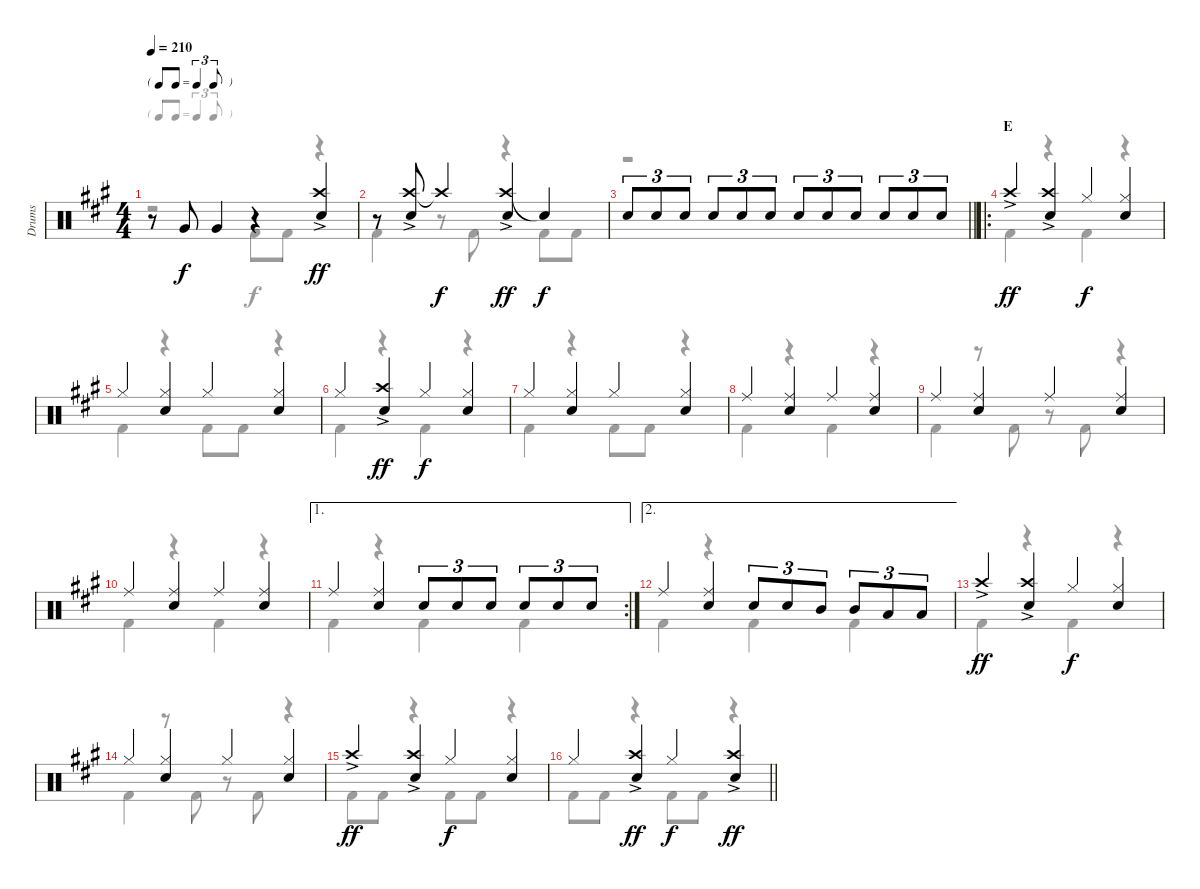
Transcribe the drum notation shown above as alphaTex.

\track ("Drums" "Drums") {instrument percussion}
\staff {score}
\articulation defaults
\voice
\ts (4 4)
\tf triplet8th
\tempo 210
\clef neutral
\ks a
r.8{dy f} "Very Low Tom (hit)".8 "Very Low Tom (hit)".4 r.4 ("Crash high (hit)"{ac} "Snare (hit) 2").4{dy ff} |
r.8 ("Crash high (hit)"{ac} "Snare (hit) 2").8 "Crash high (hit)"{t}.4{dy f} ("Crash high (hit)"{ac} "Snare (hit) 2").4{dy ff} "Snare (hit)"{t}.4{dy f} |
\barLineRight lightlight "Snare (hit) 2".8{tu (3 2)} "Snare (hit) 2".8{tu (3 2)} "Snare (hit) 2".8{tu (3 2)} "Snare (hit) 2".8{tu (3 2)} "Snare (hit) 2".8{tu (3 2)} "Snare (hit) 2".8{tu (3 2)} "Snare (hit) 2".8{tu (3 2)} "Snare (hit) 2".8{tu (3 2)} "Snare (hit) 2".8{tu (3 2)} "Snare (hit) 2".8{tu (3 2)} "Snare (hit) 2".8{tu (3 2)} "Snare (hit) 2".8{tu (3 2)}
|
\ro
\section ("" "E")
"Crash high (hit)"{ac}.4{dy ff} ("Crash high (hit)"{ac} "Snare (hit) 2").4 "Hi-Hat (closed)".4{dy f} ("Hi-Hat (closed)" "Snare (hit) 2").4 |
"Hi-Hat (closed)".4 ("Hi-Hat (closed)" "Snare (hit) 2").4 "Hi-Hat (closed)".4 ("Hi-Hat (closed)" "Snare (hit) 2").4 |
"Hi-Hat (closed)".4 ("Crash high (hit)"{ac} "Snare (hit) 2").4{dy ff} "Hi-Hat (closed)".4{dy f} ("Hi-Hat (closed)" "Snare (hit) 2").4 |
"Hi-Hat (closed)".4 ("Hi-Hat (closed)" "Snare (hit) 2").4 "Hi-Hat (closed)".4 ("Hi-Hat (closed)" "Snare (hit) 2").4 |
"Ride (middle)".4 ("Ride (middle)" "Snare (hit) 2").4 "Ride (middle)".4 ("Ride (middle)" "Snare (hit) 2").4 |
"Ride (middle)".4 ("Ride (middle)" "Snare (hit) 2").4 "Ride (middle)".4 ("Ride (middle)" "Snare (hit) 2").4 |
"Ride (middle)".4 ("Ride (middle)" "Snare (hit) 2").4 "Ride (middle)".4 ("Ride (middle)" "Snare (hit) 2").4 |
\ae 1
\rc 2 "Ride (middle)".4
("Ride (middle)" "Snare (hit) 2").4 "Snare (hit) 2".8{tu (3 2)} "Snare (hit) 2".8{tu (3 2)} "Snare (hit) 2".8{tu (3 2)} "Snare (hit) 2".8{tu (3 2)} "Snare (hit) 2".8{tu (3 2)} "Snare (hit) 2".8{tu (3 2)} |
\ae 2 "Ride (middle)".4
("Ride (middle)" "Snare (hit) 2").4 "Snare (hit) 2".8{tu (3 2)} "Snare (hit) 2".8{tu (3 2)} "Mid Tom (hit)".8{tu (3 2)} "Mid Tom (hit)".8{tu (3 2)} "Low Tom (hit)".8{tu (3 2)} "Low Tom (hit)".8{tu (3 2)} |
"Crash high (hit)"{ac}.4{dy ff} ("Crash high (hit)"{ac} "Snare (hit) 2").4 "Hi-Hat (closed)".4{dy f} ("Hi-Hat (closed)" "Snare (hit) 2").4 |
"Hi-Hat (closed)".4 ("Hi-Hat (closed)" "Snare (hit) 2").4 "Hi-Hat (closed)".4 ("Hi-Hat (closed)" "Snare (hit) 2").4 |
"Crash high (hit)"{ac}.4{dy ff} ("Crash high (hit)"{ac} "Snare (hit) 2").4 "Hi-Hat (closed)".4{dy f} ("Hi-Hat (closed)" "Snare (hit) 2").4 |
\barLineRight lightlight "Hi-Hat (closed)".4
("Crash high (hit)"{ac} "Snare (hit) 2").4{dy ff} "Hi-Hat (closed)".4{dy f} ("Crash high (hit)"{ac} "Snare (hit) 2").4{dy ff}
\voice
\clef neutral
\ottava regular
\simile none
\ks a
r.2{dy f} "Kick (hit) 2".8 "Kick (hit) 2".8 r.4 |
"Kick (hit) 2".4 r.8 "Kick (hit) 2".8 r.4 "Kick (hit) 2".8 "Kick (hit) 2".8 |
\barLineRight lightlight
r.1 |
"Kick (hit) 2".4 r.4 "Kick (hit) 2".4 r.4 |
"Kick (hit) 2".4 r.4 "Kick (hit) 2".8 "Kick (hit) 2".8 r.4 |
"Kick (hit) 2".4 r.4 "Kick (hit) 2".4 r.4 |
"Kick (hit) 2".4 r.4 "Kick (hit) 2".8 "Kick (hit) 2".8 r.4 |
"Kick (hit) 2".4 r.4 "Kick (hit) 2".4 r.4 |
"Kick (hit) 2".4 r.8 "Kick (hit) 2".8 r.8 "Kick (hit) 2".8 r.4 |
"Kick (hit) 2".4 r.4 "Kick (hit) 2".4 r.4 |
"Kick (hit) 2".4 r.4 "Kick (hit) 2".4 "Kick (hit) 2".4 |
"Kick (hit) 2".4 r.4 "Kick (hit) 2".4 "Kick (hit) 2".4 |
"Kick (hit) 2".4 r.4 "Kick (hit) 2".4 r.4 |
"Kick (hit) 2".4 r.8 "Kick (hit) 2".8 r.8 "Kick (hit) 2".8 r.4 |
"Kick (hit) 2".8 "Kick (hit) 2".8 r.4 "Kick (hit) 2".8 "Kick (hit) 2".8 r.4 |
\barLineRight lightlight "Kick (hit) 2".8 "Kick (hit) 2".8
r.4 "Kick (hit) 2".8 "Kick (hit) 2".8 r.4
